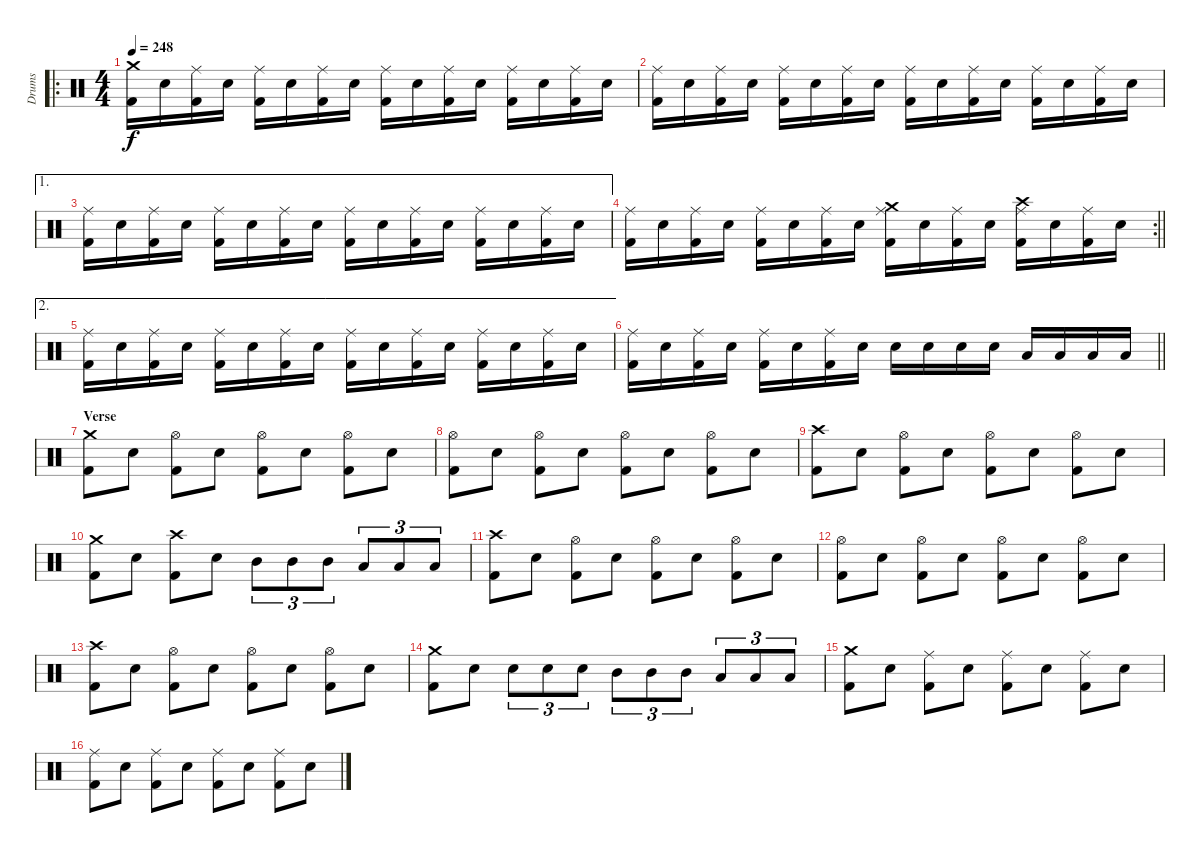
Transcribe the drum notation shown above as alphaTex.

\track ("Drums" "Drums") {instrument percussion}
\staff {score}
\articulation defaults
\ro
\ts (4 4)
\tempo 248
\clef neutral
\ks c
("Crash medium (hit)" "Kick (hit) 2").16{dy f} "Snare (hit) 2".16 ("Ride (middle)" "Kick (hit) 2").16 "Snare (hit) 2".16 ("Ride (middle)" "Kick (hit) 2").16 "Snare (hit) 2".16 ("Ride (middle)" "Kick (hit) 2").16 "Snare (hit) 2".16 ("Ride (middle)" "Kick (hit) 2").16 "Snare (hit) 2".16 ("Ride (middle)" "Kick (hit) 2").16 "Snare (hit) 2".16 ("Ride (middle)" "Kick (hit) 2").16 "Snare (hit) 2".16 ("Ride (middle)" "Kick (hit) 2").16 "Snare (hit) 2".16 |
("Ride (middle)" "Kick (hit) 2").16 "Snare (hit) 2".16 ("Ride (middle)" "Kick (hit) 2").16 "Snare (hit) 2".16 ("Ride (middle)" "Kick (hit) 2").16 "Snare (hit) 2".16 ("Ride (middle)" "Kick (hit) 2").16 "Snare (hit) 2".16 ("Ride (middle)" "Kick (hit) 2").16 "Snare (hit) 2".16 ("Ride (middle)" "Kick (hit) 2").16 "Snare (hit) 2".16 ("Ride (middle)" "Kick (hit) 2").16 "Snare (hit) 2".16 ("Ride (middle)" "Kick (hit) 2").16 "Snare (hit) 2".16 |
\ae 1
("Ride (middle)" "Kick (hit) 2").16 "Snare (hit) 2".16 ("Ride (middle)" "Kick (hit) 2").16 "Snare (hit) 2".16 ("Ride (middle)" "Kick (hit) 2").16 "Snare (hit) 2".16 ("Ride (middle)" "Kick (hit) 2").16 "Snare (hit) 2".16 ("Ride (middle)" "Kick (hit) 2").16 "Snare (hit) 2".16 ("Ride (middle)" "Kick (hit) 2").16 "Snare (hit) 2".16 ("Ride (middle)" "Kick (hit) 2").16 "Snare (hit) 2".16 ("Ride (middle)" "Kick (hit) 2").16 "Snare (hit) 2".16 |
\rc 2
\barLineRight lightlight
("Ride (middle)" "Kick (hit) 2").16 "Snare (hit) 2".16 ("Ride (middle)" "Kick (hit) 2").16 "Snare (hit) 2".16 ("Ride (middle)" "Kick (hit) 2").16 "Snare (hit) 2".16 ("Ride (middle)" "Kick (hit) 2").16 "Snare (hit) 2".16 ("Crash medium (hit)" "Ride (middle)" "Kick (hit) 2").16 "Snare (hit) 2".16 ("Ride (middle)" "Kick (hit) 2").16 "Snare (hit) 2".16 ("Crash high (hit)" "Ride (middle)" "Kick (hit) 2").16 "Snare (hit) 2".16 ("Ride (middle)" "Kick (hit) 2").16 "Snare (hit) 2".16 |
\ae 2
("Ride (middle)" "Kick (hit) 2").16 "Snare (hit) 2".16 ("Ride (middle)" "Kick (hit) 2").16 "Snare (hit) 2".16 ("Ride (middle)" "Kick (hit) 2").16 "Snare (hit) 2".16 ("Ride (middle)" "Kick (hit) 2").16 "Snare (hit) 2".16 ("Ride (middle)" "Kick (hit) 2").16 "Snare (hit) 2".16 ("Ride (middle)" "Kick (hit) 2").16 "Snare (hit) 2".16 ("Ride (middle)" "Kick (hit) 2").16 "Snare (hit) 2".16 ("Ride (middle)" "Kick (hit) 2").16 "Snare (hit) 2".16 |
\barLineRight lightlight
("Ride (middle)" "Kick (hit) 2").16 "Snare (hit) 2".16 ("Ride (middle)" "Kick (hit) 2").16 "Snare (hit) 2".16 ("Ride (middle)" "Kick (hit) 2").16 "Snare (hit) 2".16 ("Ride (middle)" "Kick (hit) 2").16 "Snare (hit) 2".16 "Snare (hit) 2".16 "Snare (hit) 2".16 "Snare (hit) 2".16 "Snare (hit) 2".16 "Low Tom (hit)".16 "Low Tom (hit)".16 "Low Tom (hit)".16 "Low Tom (hit)".16 |
\section ("" "Verse")
("Crash medium (hit)" "Kick (hit) 2").8 "Snare (hit) 2".8 ("Hi-Hat (open)" "Kick (hit) 2").8 "Snare (hit) 2".8 ("Hi-Hat (open)" "Kick (hit) 2").8 "Snare (hit) 2".8 ("Hi-Hat (open)" "Kick (hit) 2").8 "Snare (hit) 2".8 |
("Hi-Hat (open)" "Kick (hit) 2").8 "Snare (hit) 2".8 ("Hi-Hat (open)" "Kick (hit) 2").8 "Snare (hit) 2".8 ("Hi-Hat (open)" "Kick (hit) 2").8 "Snare (hit) 2".8 ("Hi-Hat (open)" "Kick (hit) 2").8 "Snare (hit) 2".8 |
("Crash high (hit)" "Kick (hit) 2").8 "Snare (hit) 2".8 ("Hi-Hat (open)" "Kick (hit) 2").8 "Snare (hit) 2".8 ("Hi-Hat (open)" "Kick (hit) 2").8 "Snare (hit) 2".8 ("Hi-Hat (open)" "Kick (hit) 2").8 "Snare (hit) 2".8 |
("Crash medium (hit)" "Kick (hit) 2").8 "Snare (hit) 2".8 ("Crash high (hit)" "Kick (hit) 2").8 "Snare (hit) 2".8 "Mid Tom (hit)".8{tu (3 2)} "Mid Tom (hit)".8{tu (3 2)} "Mid Tom (hit)".8{tu (3 2)} "Low Tom (hit)".8{tu (3 2)} "Low Tom (hit)".8{tu (3 2)} "Low Tom (hit)".8{tu (3 2)} |
("Crash high (hit)" "Kick (hit) 2").8 "Snare (hit) 2".8 ("Hi-Hat (open)" "Kick (hit) 2").8 "Snare (hit) 2".8 ("Hi-Hat (open)" "Kick (hit) 2").8 "Snare (hit) 2".8 ("Hi-Hat (open)" "Kick (hit) 2").8 "Snare (hit) 2".8 |
("Hi-Hat (open)" "Kick (hit) 2").8 "Snare (hit) 2".8 ("Hi-Hat (open)" "Kick (hit) 2").8 "Snare (hit) 2".8 ("Hi-Hat (open)" "Kick (hit) 2").8 "Snare (hit) 2".8 ("Hi-Hat (open)" "Kick (hit) 2").8 "Snare (hit) 2".8 |
("Crash high (hit)" "Kick (hit) 2").8 "Snare (hit) 2".8 ("Hi-Hat (open)" "Kick (hit) 2").8 "Snare (hit) 2".8 ("Hi-Hat (open)" "Kick (hit) 2").8 "Snare (hit) 2".8 ("Hi-Hat (open)" "Kick (hit) 2").8 "Snare (hit) 2".8 |
("Crash medium (hit)" "Kick (hit) 2").8 "Snare (hit) 2".8 "Snare (hit) 2".8{tu (3 2)} "Snare (hit) 2".8{tu (3 2)} "Snare (hit) 2".8{tu (3 2)} "Mid Tom (hit)".8{tu (3 2)} "Mid Tom (hit)".8{tu (3 2)} "Mid Tom (hit)".8{tu (3 2)} "Low Tom (hit)".8{tu (3 2)} "Low Tom (hit)".8{tu (3 2)} "Low Tom (hit)".8{tu (3 2)} |
("Crash medium (hit)" "Kick (hit) 2").8 "Snare (hit) 2".8 ("Ride (middle)" "Kick (hit) 2").8 "Snare (hit) 2".8 ("Ride (middle)" "Kick (hit) 2").8 "Snare (hit) 2".8 ("Ride (middle)" "Kick (hit) 2").8 "Snare (hit) 2".8 |
("Ride (middle)" "Kick (hit) 2").8 "Snare (hit) 2".8 ("Ride (middle)" "Kick (hit) 2").8 "Snare (hit) 2".8 ("Ride (middle)" "Kick (hit) 2").8 "Snare (hit) 2".8 ("Ride (middle)" "Kick (hit) 2").8 "Snare (hit) 2".8
